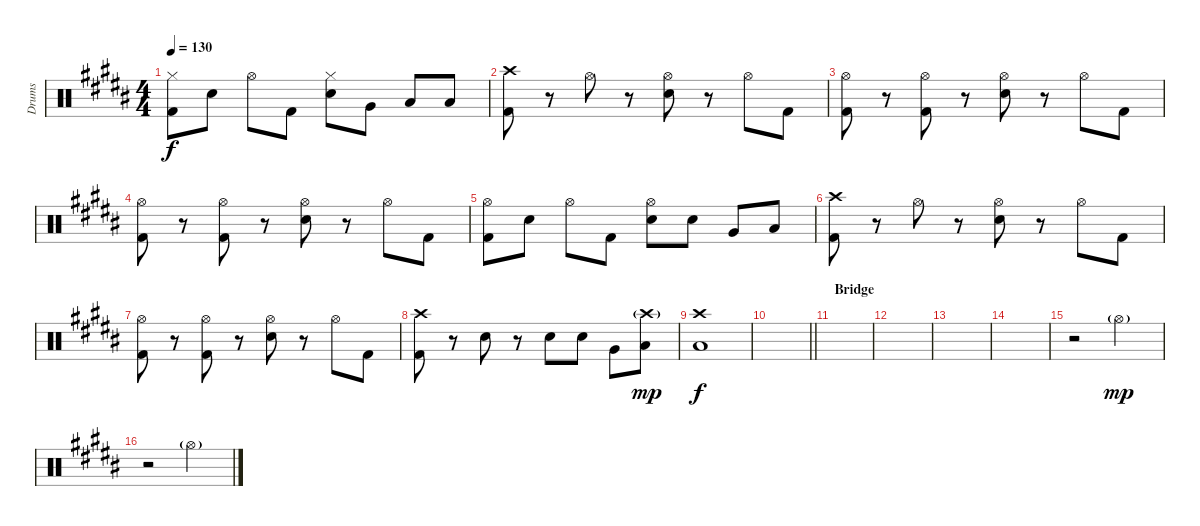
\track ("Drums" "Drums") {instrument percussion}
\staff {score}
\articulation defaults
\ts (4 4)
\tempo 130
\clef neutral
\ks b
("Hi-Hat (closed)" "Kick (hit) 2").8{dy f} "Electric Snare (hit)".8 "Hi-Hat (open)".8 "Kick (hit) 2".8 ("Hi-Hat (closed)" "Electric Snare (hit)").8 "Very Low Tom (hit)".8 "Low Floor Tom (hit)".8 "Low Floor Tom (hit)".8 |
("Crash high (hit)" "Kick (hit) 2").8 r.8 "Hi-Hat (open)".8 r.8 ("Hi-Hat (open)" "Electric Snare (hit)").8 r.8 "Hi-Hat (open)".8 "Kick (hit) 2".8 |
("Hi-Hat (open)" "Kick (hit) 2").8 r.8 ("Hi-Hat (open)" "Kick (hit) 2").8 r.8 ("Hi-Hat (open)" "Electric Snare (hit)").8 r.8 "Hi-Hat (open)".8 "Kick (hit) 2".8 |
("Hi-Hat (open)" "Kick (hit) 2").8 r.8 ("Hi-Hat (open)" "Kick (hit) 2").8 r.8 ("Hi-Hat (open)" "Electric Snare (hit)").8 r.8 "Hi-Hat (open)".8 "Kick (hit) 2".8 |
("Hi-Hat (open)" "Kick (hit) 2").8 "Electric Snare (hit)".8 "Hi-Hat (open)".8 "Kick (hit) 2".8 ("Hi-Hat (open)" "Electric Snare (hit)").8 "Electric Snare (hit)".8 "Very Low Tom (hit)".8 "Low Floor Tom (hit)".8 |
("Crash high (hit)" "Kick (hit) 2").8 r.8 "Hi-Hat (open)".8 r.8 ("Hi-Hat (open)" "Electric Snare (hit)").8 r.8 "Hi-Hat (open)".8 "Kick (hit) 2".8 |
("Hi-Hat (open)" "Kick (hit) 2").8 r.8 ("Hi-Hat (open)" "Kick (hit) 2").8 r.8 ("Hi-Hat (open)" "Electric Snare (hit)").8 r.8 "Hi-Hat (open)".8 "Kick (hit) 2".8 |
("Crash high (hit)" "Kick (hit) 2").8 r.8 "Electric Snare (hit)".8 r.8 "Electric Snare (hit)".8 "Electric Snare (hit)".8 "Very Low Tom (hit)".8 ("Crash high (hit)"{g} "Low Floor Tom (hit)").8{dy mp} |
("Crash high (hit)" "Low Floor Tom (hit)").1{dy f} |
\barLineRight lightlight
|
\section ("" "Bridge")
|
|
|
|
r.2 "Hi-Hat (open)"{g}.2{dy mp} |
r.2 "Hi-Hat (open)"{g}.2
